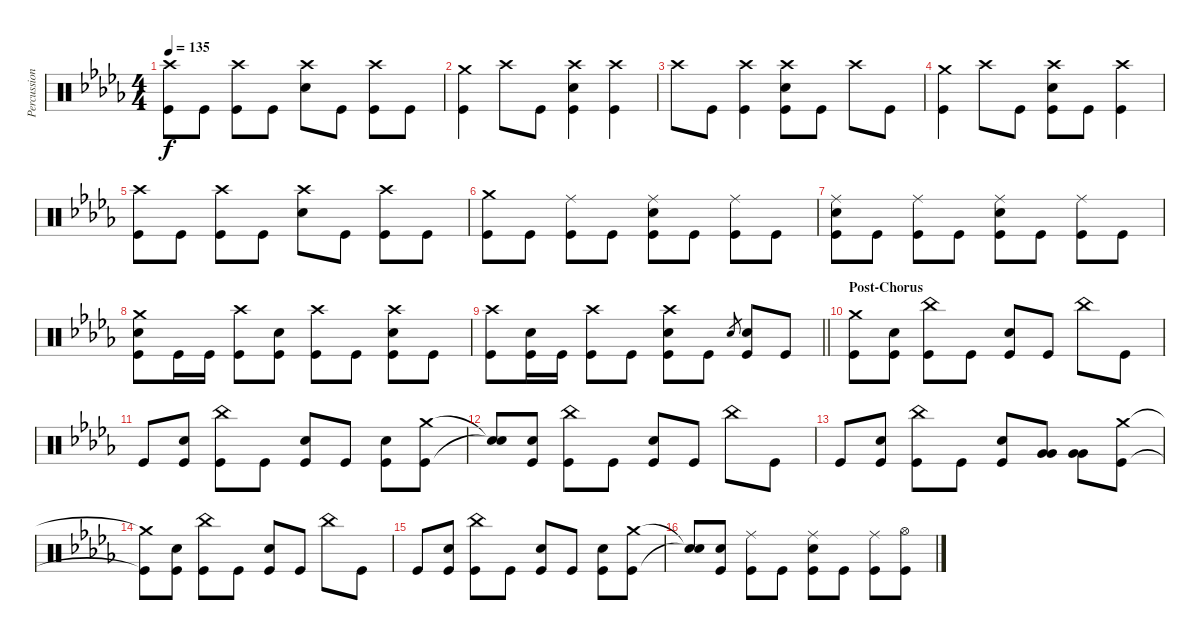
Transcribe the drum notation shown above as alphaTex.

\track ("Percussion" "Percussion") {instrument percussion}
\staff {score}
\articulation defaults
\ts (4 4)
\tempo 135
\clef neutral
\ks db
("Crash high (hit)" "Kick (hit)").8{dy f} "Kick (hit)".8 ("Crash high (hit)" "Kick (hit)").8 "Kick (hit)".8 ("Crash high (hit)" "Electric Snare (hit)").8 "Kick (hit)".8 ("Crash high (hit)" "Kick (hit)").8 "Kick (hit)".8 |
("Crash medium (hit)" "Kick (hit)").4 "Crash high (hit)".8 "Kick (hit)".8 ("Crash high (hit)" "Electric Snare (hit)" "Kick (hit)").4 ("Crash high (hit)" "Kick (hit)").4 |
"Crash high (hit)".8 "Kick (hit)".8 ("Crash high (hit)" "Kick (hit)").4 ("Crash high (hit)" "Electric Snare (hit)" "Kick (hit)").8 "Kick (hit)".8 "Crash high (hit)".8 "Kick (hit)".8 |
("Crash medium (hit)" "Kick (hit)").4 "Crash high (hit)".8 "Kick (hit)".8 ("Crash high (hit)" "Electric Snare (hit)" "Kick (hit)").8 "Kick (hit)".8 ("Crash high (hit)" "Kick (hit)").4 |
("Crash high (hit)" "Kick (hit)").8 "Kick (hit)".8 ("Crash high (hit)" "Kick (hit)").8 "Kick (hit)".8 ("Crash high (hit)" "Electric Snare (hit)").8 "Kick (hit)".8 ("Crash high (hit)" "Kick (hit)").8 "Kick (hit)".8 |
("Crash medium (hit)" "Kick (hit)").8 "Kick (hit)".8 ("Ride (middle)" "Kick (hit)").8 "Kick (hit)".8 ("Ride (middle)" "Electric Snare (hit)" "Kick (hit)").8 "Kick (hit)".8 ("Ride (middle)" "Kick (hit)").8 "Kick (hit)".8 |
("Ride (middle)" "Electric Snare (hit)" "Kick (hit)").8 "Kick (hit)".8 ("Ride (middle)" "Kick (hit)").8 "Kick (hit)".8 ("Ride (middle)" "Electric Snare (hit)" "Kick (hit)").8 "Kick (hit)".8 ("Ride (middle)" "Kick (hit)").8 "Kick (hit)".8 |
("Crash medium (hit)" "Electric Snare (hit)" "Kick (hit)").8 "Kick (hit)".16 "Kick (hit)".16 ("Crash high (hit)" "Kick (hit)").8 ("Electric Snare (hit)" "Kick (hit)").8 ("Crash high (hit)" "Kick (hit)").8 "Kick (hit)".8 ("Crash high (hit)" "Electric Snare (hit)" "Kick (hit)").8 "Kick (hit)".8 |
\barLineRight lightlight
("Crash high (hit)" "Kick (hit)").8 ("Electric Snare (hit)" "Kick (hit)").16 "Kick (hit)".16 ("Crash high (hit)" "Kick (hit)").8 "Kick (hit)".8 ("Crash high (hit)" "Electric Snare (hit)" "Kick (hit)").8 "Kick (hit)".8 "Electric Snare (hit)".8{gr} ("Electric Snare (hit)" "Kick (hit)").8 "Kick (hit)".8 |
\section ("" "Post-Chorus")
("Crash medium (hit)" "Kick (hit)").8 ("Electric Snare (hit)" "Kick (hit)").8 ("China (hit)" "Kick (hit)").8 "Kick (hit)".8 ("Electric Snare (hit)" "Kick (hit)").8 "Kick (hit)".8 "China (hit)".8 "Kick (hit)".8 |
"Kick (hit)".8 ("Electric Snare (hit)" "Kick (hit)").8 ("China (hit)" "Kick (hit)").8 "Kick (hit)".8 ("Electric Snare (hit)" "Kick (hit)").8 "Kick (hit)".8 ("Electric Snare (hit)" "Kick (hit)").8 ("Crash medium (hit)" "Kick (hit)").8 |
("Snare (hit)"{t} "Snare (hit)"{t}).8 ("Electric Snare (hit)" "Kick (hit)").8 ("China (hit)" "Kick (hit)").8 "Kick (hit)".8 ("Electric Snare (hit)" "Kick (hit)").8 "Kick (hit)".8 "China (hit)".8 "Kick (hit)".8 |
"Kick (hit)".8 ("Electric Snare (hit)" "Kick (hit)").8 ("China (hit)" "Kick (hit)").8 "Kick (hit)".8 ("Electric Snare (hit)" "Kick (hit)").8 ("Very Low Tom (hit)" "Very Low Tom (hit)").8 ("Very Low Tom (hit)" "Very Low Tom (hit)").8 ("Crash medium (hit)" "Kick (hit)").8 |
("Crash medium (hit)"{t} "Kick (hit)"{t}).8 ("Electric Snare (hit)" "Kick (hit)").8 ("China (hit)" "Kick (hit)").8 "Kick (hit)".8 ("Electric Snare (hit)" "Kick (hit)").8 "Kick (hit)".8 "China (hit)".8 "Kick (hit)".8 |
"Kick (hit)".8 ("Electric Snare (hit)" "Kick (hit)").8 ("China (hit)" "Kick (hit)").8 "Kick (hit)".8 ("Electric Snare (hit)" "Kick (hit)").8 "Kick (hit)".8 ("Electric Snare (hit)" "Kick (hit)").8 ("Crash medium (hit)" "Kick (hit)").8 |
("Snare (hit)"{t} "Snare (hit)"{t}).8 ("Electric Snare (hit)" "Kick (hit)").8 ("Ride (middle)" "Kick (hit)").8 "Kick (hit)".8 ("Ride (middle)" "Electric Snare (hit)" "Kick (hit)").8 "Kick (hit)".8 ("Ride (middle)" "Kick (hit)").8 ("Hi-Hat (open)" "Kick (hit)").8
